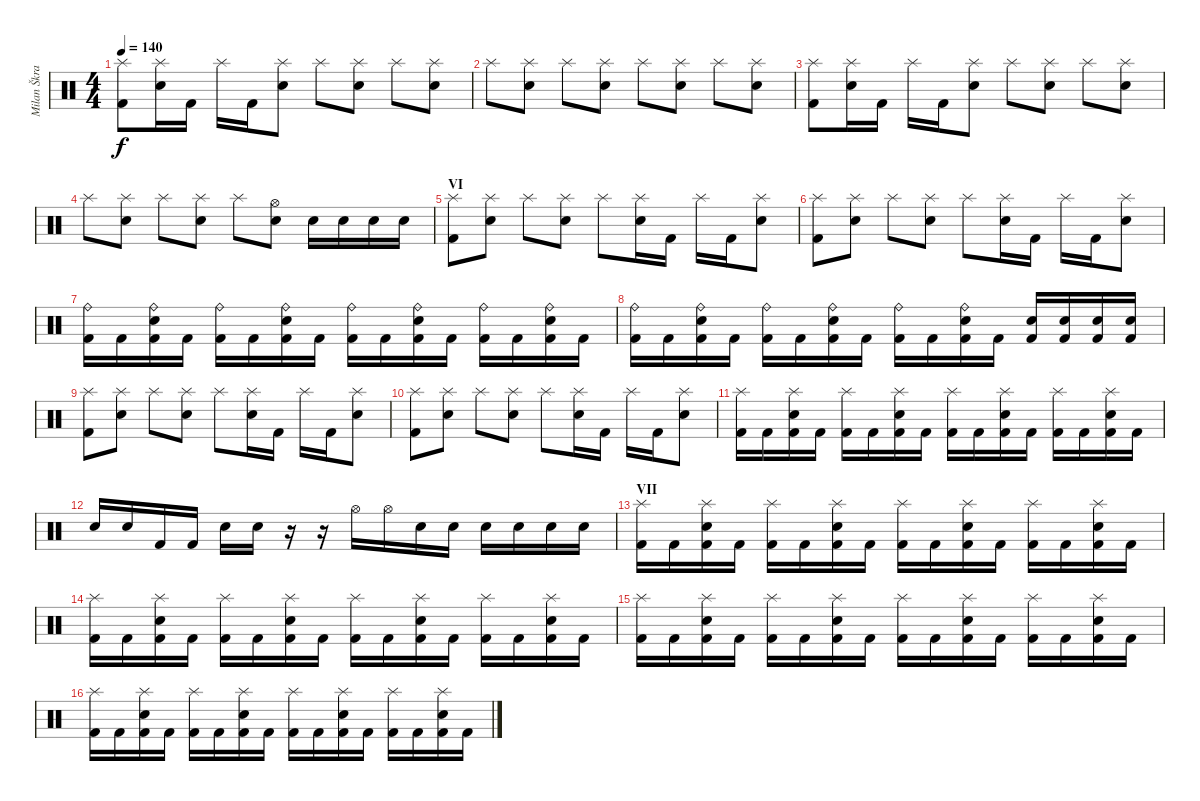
\track ("Milan Škrabal" "Milan Škra") {instrument percussion}
\staff {score}
\articulation defaults
\ts (4 4)
\tempo 140
\clef neutral
\ks c
("Splash (hit)" "Kick (hit) 2").8{dy f} ("Splash (hit)" "Electric Snare (hit)").16 "Kick (hit) 2".16 "Splash (hit)".16 "Kick (hit) 2".16 ("Splash (hit)" "Electric Snare (hit)").8 "Splash (hit)".8 ("Splash (hit)" "Electric Snare (hit)").8 "Splash (hit)".8 ("Splash (hit)" "Electric Snare (hit)").8 |
"Splash (hit)".8 ("Splash (hit)" "Electric Snare (hit)").8 "Splash (hit)".8 ("Splash (hit)" "Electric Snare (hit)").8 "Splash (hit)".8 ("Splash (hit)" "Electric Snare (hit)").8 "Splash (hit)".8 ("Splash (hit)" "Electric Snare (hit)").8 |
("Splash (hit)" "Kick (hit) 2").8 ("Splash (hit)" "Electric Snare (hit)").16 "Kick (hit) 2".16 "Splash (hit)".16 "Kick (hit) 2".16 ("Splash (hit)" "Electric Snare (hit)").8 "Splash (hit)".8 ("Splash (hit)" "Electric Snare (hit)").8 "Splash (hit)".8 ("Splash (hit)" "Electric Snare (hit)").8 |
"Splash (hit)".8 ("Splash (hit)" "Electric Snare (hit)").8 "Splash (hit)".8 ("Splash (hit)" "Electric Snare (hit)").8 "Splash (hit)".8 ("Hi-Hat (open)" "Electric Snare (hit)").8 "Electric Snare (hit)".16 "Electric Snare (hit)".16 "Electric Snare (hit)".16 "Electric Snare (hit)".16 |
\section ("" "VI")
("Splash (hit)" "Kick (hit) 2").8 ("Splash (hit)" "Electric Snare (hit)").8 "Splash (hit)".8 ("Splash (hit)" "Electric Snare (hit)").8 "Splash (hit)".8 ("Splash (hit)" "Electric Snare (hit)").16 "Kick (hit) 2".16 "Splash (hit)".16 "Kick (hit) 2".16 ("Splash (hit)" "Electric Snare (hit)").8 |
("Splash (hit)" "Kick (hit) 2").8 ("Splash (hit)" "Electric Snare (hit)").8 "Splash (hit)".8 ("Splash (hit)" "Electric Snare (hit)").8 "Splash (hit)".8 ("Splash (hit)" "Electric Snare (hit)").16 "Kick (hit) 2".16 "Splash (hit)".16 "Kick (hit) 2".16 ("Splash (hit)" "Electric Snare (hit)").8 |
("Ride (bell)" "Kick (hit) 2").16 "Kick (hit) 2".16 ("Ride (bell)" "Electric Snare (hit)" "Kick (hit) 2").16 "Kick (hit) 2".16 ("Ride (bell)" "Kick (hit) 2").16 "Kick (hit) 2".16 ("Ride (bell)" "Electric Snare (hit)" "Kick (hit) 2").16 "Kick (hit) 2".16 ("Ride (bell)" "Kick (hit) 2").16 "Kick (hit) 2".16 ("Ride (bell)" "Electric Snare (hit)" "Kick (hit) 2").16 "Kick (hit) 2".16 ("Ride (bell)" "Kick (hit) 2").16 "Kick (hit) 2".16 ("Ride (bell)" "Electric Snare (hit)" "Kick (hit) 2").16 "Kick (hit) 2".16 |
("Ride (bell)" "Kick (hit) 2").16 "Kick (hit) 2".16 ("Ride (bell)" "Electric Snare (hit)" "Kick (hit) 2").16 "Kick (hit) 2".16 ("Ride (bell)" "Kick (hit) 2").16 "Kick (hit) 2".16 ("Ride (bell)" "Electric Snare (hit)" "Kick (hit) 2").16 "Kick (hit) 2".16 ("Ride (bell)" "Kick (hit) 2").16 "Kick (hit) 2".16 ("Ride (bell)" "Electric Snare (hit)" "Kick (hit) 2").16 "Kick (hit) 2".16 ("Electric Snare (hit)" "Kick (hit) 2").16 ("Electric Snare (hit)" "Kick (hit) 2").16 ("Electric Snare (hit)" "Kick (hit) 2").16 ("Electric Snare (hit)" "Kick (hit) 2").16 |
("Splash (hit)" "Kick (hit) 2").8 ("Splash (hit)" "Electric Snare (hit)").8 "Splash (hit)".8 ("Splash (hit)" "Electric Snare (hit)").8 "Splash (hit)".8 ("Splash (hit)" "Electric Snare (hit)").16 "Kick (hit) 2".16 "Splash (hit)".16 "Kick (hit) 2".16 ("Splash (hit)" "Electric Snare (hit)").8 |
("Splash (hit)" "Kick (hit) 2").8 ("Splash (hit)" "Electric Snare (hit)").8 "Splash (hit)".8 ("Splash (hit)" "Electric Snare (hit)").8 "Splash (hit)".8 ("Splash (hit)" "Electric Snare (hit)").16 "Kick (hit) 2".16 "Splash (hit)".16 "Kick (hit) 2".16 ("Splash (hit)" "Electric Snare (hit)").8 |
("Splash (hit)" "Kick (hit) 2").16 "Kick (hit) 2".16 ("Splash (hit)" "Electric Snare (hit)" "Kick (hit) 2").16 "Kick (hit) 2".16 ("Splash (hit)" "Kick (hit) 2").16 "Kick (hit) 2".16 ("Splash (hit)" "Electric Snare (hit)" "Kick (hit) 2").16 "Kick (hit) 2".16 ("Splash (hit)" "Kick (hit) 2").16 "Kick (hit) 2".16 ("Splash (hit)" "Electric Snare (hit)" "Kick (hit) 2").16 "Kick (hit) 2".16 ("Splash (hit)" "Kick (hit) 2").16 "Kick (hit) 2".16 ("Splash (hit)" "Electric Snare (hit)" "Kick (hit) 2").16 "Kick (hit) 2".16 |
"Electric Snare (hit)".16 "Electric Snare (hit)".16 "Kick (hit) 2".16 "Kick (hit) 2".16 "Electric Snare (hit)".16 "Electric Snare (hit)".16 r.16 r.16 "Hi-Hat (open)".16 "Hi-Hat (open)".16 "Electric Snare (hit)".16 "Electric Snare (hit)".16 "Electric Snare (hit)".16 "Electric Snare (hit)".16 "Electric Snare (hit)".16 "Electric Snare (hit)".16 |
\section ("" "VII")
("Splash (hit)" "Kick (hit) 2").16 "Kick (hit) 2".16 ("Splash (hit)" "Electric Snare (hit)" "Kick (hit) 2").16 "Kick (hit) 2".16 ("Splash (hit)" "Kick (hit) 2").16 "Kick (hit) 2".16 ("Splash (hit)" "Electric Snare (hit)" "Kick (hit) 2").16 "Kick (hit) 2".16 ("Splash (hit)" "Kick (hit) 2").16 "Kick (hit) 2".16 ("Splash (hit)" "Electric Snare (hit)" "Kick (hit) 2").16 "Kick (hit) 2".16 ("Splash (hit)" "Kick (hit) 2").16 "Kick (hit) 2".16 ("Splash (hit)" "Electric Snare (hit)" "Kick (hit) 2").16 "Kick (hit) 2".16 |
("Splash (hit)" "Kick (hit) 2").16 "Kick (hit) 2".16 ("Splash (hit)" "Electric Snare (hit)" "Kick (hit) 2").16 "Kick (hit) 2".16 ("Splash (hit)" "Kick (hit) 2").16 "Kick (hit) 2".16 ("Splash (hit)" "Electric Snare (hit)" "Kick (hit) 2").16 "Kick (hit) 2".16 ("Splash (hit)" "Kick (hit) 2").16 "Kick (hit) 2".16 ("Splash (hit)" "Electric Snare (hit)" "Kick (hit) 2").16 "Kick (hit) 2".16 ("Splash (hit)" "Kick (hit) 2").16 "Kick (hit) 2".16 ("Splash (hit)" "Electric Snare (hit)" "Kick (hit) 2").16 "Kick (hit) 2".16 |
("Splash (hit)" "Kick (hit) 2").16 "Kick (hit) 2".16 ("Splash (hit)" "Electric Snare (hit)" "Kick (hit) 2").16 "Kick (hit) 2".16 ("Splash (hit)" "Kick (hit) 2").16 "Kick (hit) 2".16 ("Splash (hit)" "Electric Snare (hit)" "Kick (hit) 2").16 "Kick (hit) 2".16 ("Splash (hit)" "Kick (hit) 2").16 "Kick (hit) 2".16 ("Splash (hit)" "Electric Snare (hit)" "Kick (hit) 2").16 "Kick (hit) 2".16 ("Splash (hit)" "Kick (hit) 2").16 "Kick (hit) 2".16 ("Splash (hit)" "Electric Snare (hit)" "Kick (hit) 2").16 "Kick (hit) 2".16 |
("Splash (hit)" "Kick (hit) 2").16 "Kick (hit) 2".16 ("Splash (hit)" "Electric Snare (hit)" "Kick (hit) 2").16 "Kick (hit) 2".16 ("Splash (hit)" "Kick (hit) 2").16 "Kick (hit) 2".16 ("Splash (hit)" "Electric Snare (hit)" "Kick (hit) 2").16 "Kick (hit) 2".16 ("Splash (hit)" "Kick (hit) 2").16 "Kick (hit) 2".16 ("Splash (hit)" "Electric Snare (hit)" "Kick (hit) 2").16 "Kick (hit) 2".16 ("Splash (hit)" "Kick (hit) 2").16 "Kick (hit) 2".16 ("Splash (hit)" "Electric Snare (hit)" "Kick (hit) 2").16 "Kick (hit) 2".16
